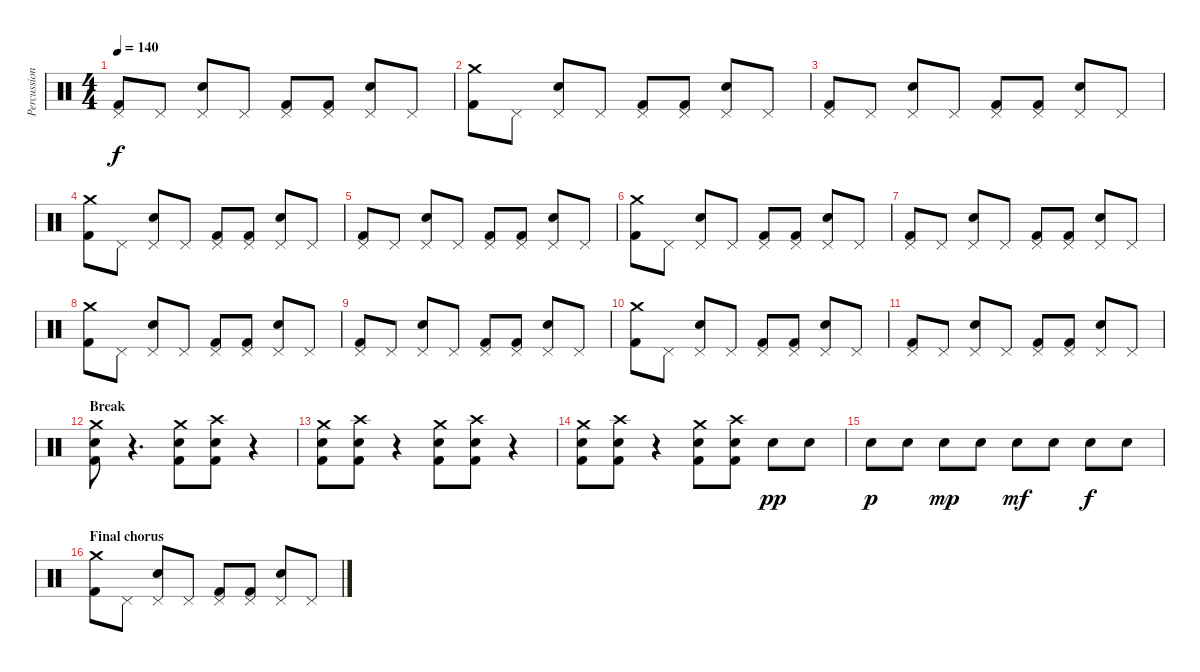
\track ("Percussioni" "Percussion") {instrument percussion}
\staff {score}
\articulation defaults
\ts (4 4)
\tempo 140
\clef neutral
\ks c
("Pedal Hi-Hat (hit)" "Kick (hit) 2").8{dy f} "Pedal Hi-Hat (hit)".8 ("Pedal Hi-Hat (hit)" "Electric Snare (hit)").8 "Pedal Hi-Hat (hit)".8 ("Pedal Hi-Hat (hit)" "Kick (hit) 2").8 ("Pedal Hi-Hat (hit)" "Kick (hit) 2").8 ("Pedal Hi-Hat (hit)" "Electric Snare (hit)").8 "Pedal Hi-Hat (hit)".8 |
("Crash medium (hit)" "Kick (hit) 2").8 "Pedal Hi-Hat (hit)".8 ("Pedal Hi-Hat (hit)" "Electric Snare (hit)").8 "Pedal Hi-Hat (hit)".8 ("Pedal Hi-Hat (hit)" "Kick (hit) 2").8 ("Pedal Hi-Hat (hit)" "Kick (hit) 2").8 ("Pedal Hi-Hat (hit)" "Electric Snare (hit)").8 "Pedal Hi-Hat (hit)".8 |
("Pedal Hi-Hat (hit)" "Kick (hit) 2").8 "Pedal Hi-Hat (hit)".8 ("Pedal Hi-Hat (hit)" "Electric Snare (hit)").8 "Pedal Hi-Hat (hit)".8 ("Pedal Hi-Hat (hit)" "Kick (hit) 2").8 ("Pedal Hi-Hat (hit)" "Kick (hit) 2").8 ("Pedal Hi-Hat (hit)" "Electric Snare (hit)").8 "Pedal Hi-Hat (hit)".8 |
("Crash medium (hit)" "Kick (hit) 2").8 "Pedal Hi-Hat (hit)".8 ("Pedal Hi-Hat (hit)" "Electric Snare (hit)").8 "Pedal Hi-Hat (hit)".8 ("Pedal Hi-Hat (hit)" "Kick (hit) 2").8 ("Pedal Hi-Hat (hit)" "Kick (hit) 2").8 ("Pedal Hi-Hat (hit)" "Electric Snare (hit)").8 "Pedal Hi-Hat (hit)".8 |
("Pedal Hi-Hat (hit)" "Kick (hit) 2").8 "Pedal Hi-Hat (hit)".8 ("Pedal Hi-Hat (hit)" "Electric Snare (hit)").8 "Pedal Hi-Hat (hit)".8 ("Pedal Hi-Hat (hit)" "Kick (hit) 2").8 ("Pedal Hi-Hat (hit)" "Kick (hit) 2").8 ("Pedal Hi-Hat (hit)" "Electric Snare (hit)").8 "Pedal Hi-Hat (hit)".8 |
("Crash medium (hit)" "Kick (hit) 2").8 "Pedal Hi-Hat (hit)".8 ("Pedal Hi-Hat (hit)" "Electric Snare (hit)").8 "Pedal Hi-Hat (hit)".8 ("Pedal Hi-Hat (hit)" "Kick (hit) 2").8 ("Pedal Hi-Hat (hit)" "Kick (hit) 2").8 ("Pedal Hi-Hat (hit)" "Electric Snare (hit)").8 "Pedal Hi-Hat (hit)".8 |
("Pedal Hi-Hat (hit)" "Kick (hit) 2").8 "Pedal Hi-Hat (hit)".8 ("Pedal Hi-Hat (hit)" "Electric Snare (hit)").8 "Pedal Hi-Hat (hit)".8 ("Pedal Hi-Hat (hit)" "Kick (hit) 2").8 ("Pedal Hi-Hat (hit)" "Kick (hit) 2").8 ("Pedal Hi-Hat (hit)" "Electric Snare (hit)").8 "Pedal Hi-Hat (hit)".8 |
("Crash medium (hit)" "Kick (hit) 2").8 "Pedal Hi-Hat (hit)".8 ("Pedal Hi-Hat (hit)" "Electric Snare (hit)").8 "Pedal Hi-Hat (hit)".8 ("Pedal Hi-Hat (hit)" "Kick (hit) 2").8 ("Pedal Hi-Hat (hit)" "Kick (hit) 2").8 ("Pedal Hi-Hat (hit)" "Electric Snare (hit)").8 "Pedal Hi-Hat (hit)".8 |
("Pedal Hi-Hat (hit)" "Kick (hit) 2").8 "Pedal Hi-Hat (hit)".8 ("Pedal Hi-Hat (hit)" "Electric Snare (hit)").8 "Pedal Hi-Hat (hit)".8 ("Pedal Hi-Hat (hit)" "Kick (hit) 2").8 ("Pedal Hi-Hat (hit)" "Kick (hit) 2").8 ("Pedal Hi-Hat (hit)" "Electric Snare (hit)").8 "Pedal Hi-Hat (hit)".8 |
("Crash medium (hit)" "Kick (hit) 2").8 "Pedal Hi-Hat (hit)".8 ("Pedal Hi-Hat (hit)" "Electric Snare (hit)").8 "Pedal Hi-Hat (hit)".8 ("Pedal Hi-Hat (hit)" "Kick (hit) 2").8 ("Pedal Hi-Hat (hit)" "Kick (hit) 2").8 ("Pedal Hi-Hat (hit)" "Electric Snare (hit)").8 "Pedal Hi-Hat (hit)".8 |
("Pedal Hi-Hat (hit)" "Kick (hit) 2").8 "Pedal Hi-Hat (hit)".8 ("Pedal Hi-Hat (hit)" "Electric Snare (hit)").8 "Pedal Hi-Hat (hit)".8 ("Pedal Hi-Hat (hit)" "Kick (hit) 2").8 ("Pedal Hi-Hat (hit)" "Kick (hit) 2").8 ("Pedal Hi-Hat (hit)" "Electric Snare (hit)").8 "Pedal Hi-Hat (hit)".8 |
\section ("" "Break")
("Crash medium (hit)" "Electric Snare (hit)" "Kick (hit) 2").8 r.4{d} ("Crash medium (hit)" "Electric Snare (hit)" "Kick (hit) 2").8 ("Crash high (hit)" "Electric Snare (hit)" "Kick (hit) 2").8 r.4 |
("Crash medium (hit)" "Electric Snare (hit)" "Kick (hit) 2").8 ("Crash high (hit)" "Electric Snare (hit)" "Kick (hit) 2").8 r.4 ("Crash medium (hit)" "Electric Snare (hit)" "Kick (hit) 2").8 ("Crash high (hit)" "Electric Snare (hit)" "Kick (hit) 2").8 r.4 |
("Crash medium (hit)" "Electric Snare (hit)" "Kick (hit) 2").8 ("Crash high (hit)" "Electric Snare (hit)" "Kick (hit) 2").8 r.4 ("Crash medium (hit)" "Electric Snare (hit)" "Kick (hit) 2").8 ("Crash high (hit)" "Electric Snare (hit)" "Kick (hit) 2").8 "Electric Snare (hit)".8{dy pp} "Electric Snare (hit)".8 |
"Electric Snare (hit)".8{dy p} "Electric Snare (hit)".8 "Electric Snare (hit)".8{dy mp} "Electric Snare (hit)".8 "Electric Snare (hit)".8{dy mf} "Electric Snare (hit)".8 "Electric Snare (hit)".8{dy f} "Electric Snare (hit)".8 |
\section ("" "Final chorus")
("Crash medium (hit)" "Kick (hit) 2").8 "Pedal Hi-Hat (hit)".8 ("Pedal Hi-Hat (hit)" "Electric Snare (hit)").8 "Pedal Hi-Hat (hit)".8 ("Pedal Hi-Hat (hit)" "Kick (hit) 2").8 ("Pedal Hi-Hat (hit)" "Kick (hit) 2").8 ("Pedal Hi-Hat (hit)" "Electric Snare (hit)").8 "Pedal Hi-Hat (hit)".8
